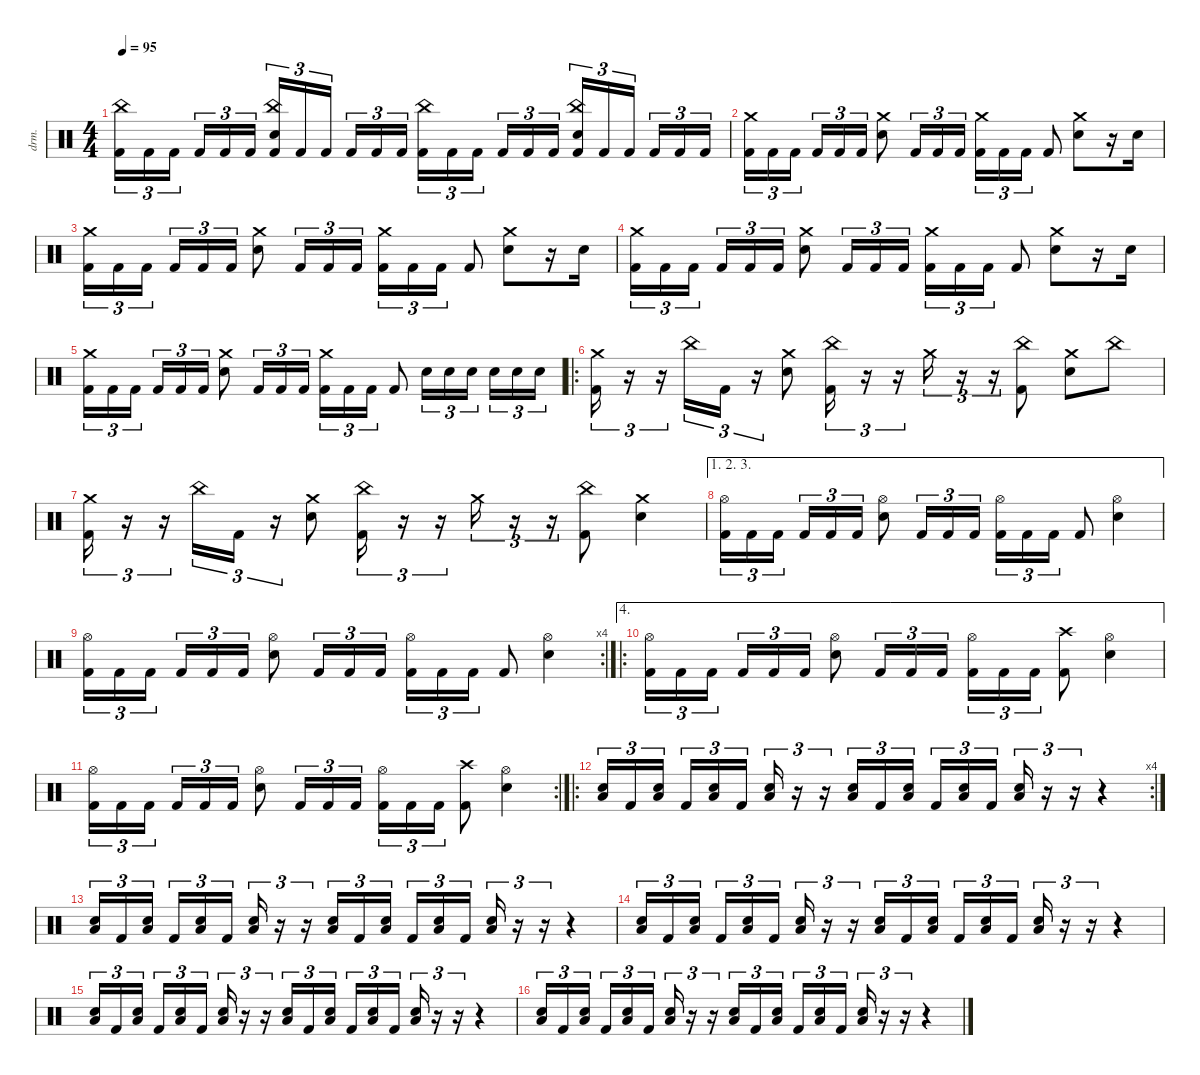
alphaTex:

\defaultSystemsLayout 4
\hideDynamics
\bracketExtendMode nobrackets
\otherSystemsTrackNameOrientation horizontal
\track ("FATTY!" "drm.") {instrument percussion}
\staff {score}
\articulation defaults
\ts (4 4)
\tempo 95
\clef neutral
\ks c
("China (hit)" "Kick (hit) 2").16{tu (3 2) dy f beam Down} "Kick (hit) 2".16{tu (3 2) beam Down} "Kick (hit) 2".16{tu (3 2) beam Down} "Kick (hit) 2".16{tu (3 2) beam Up} "Kick (hit) 2".16{tu (3 2) beam Up} "Kick (hit) 2".16{tu (3 2) beam Up} ("China (hit)" "Snare (hit) 2" "Kick (hit) 2").16{tu (3 2) beam Up} "Kick (hit) 2".16{tu (3 2) beam Up} "Kick (hit) 2".16{tu (3 2) beam Up} "Kick (hit) 2".16{tu (3 2) beam Up} "Kick (hit) 2".16{tu (3 2) beam Up} "Kick (hit) 2".16{tu (3 2) beam Up} ("China (hit)" "Kick (hit) 2").16{tu (3 2) beam Down} "Kick (hit) 2".16{tu (3 2) beam Down} "Kick (hit) 2".16{tu (3 2) beam Down} "Kick (hit) 2".16{tu (3 2) beam Up} "Kick (hit) 2".16{tu (3 2) beam Up} "Kick (hit) 2".16{tu (3 2) beam Up} ("China (hit)" "Snare (hit) 2" "Kick (hit) 2").16{tu (3 2) beam Up} "Kick (hit) 2".16{tu (3 2) beam Up} "Kick (hit) 2".16{tu (3 2) beam Up} "Kick (hit) 2".16{tu (3 2) beam Up} "Kick (hit) 2".16{tu (3 2) beam Up} "Kick (hit) 2".16{tu (3 2) beam Up} |
("Crash medium (hit)" "Kick (hit) 2").16{tu (3 2) beam Down} "Kick (hit) 2".16{tu (3 2) beam Down} "Kick (hit) 2".16{tu (3 2) beam Down} "Kick (hit) 2".16{tu (3 2) beam Up} "Kick (hit) 2".16{tu (3 2) beam Up} "Kick (hit) 2".16{tu (3 2) beam Up} ("Crash medium (hit)" "Snare (hit) 2").8{beam Down} "Kick (hit) 2".16{tu (3 2) beam Up} "Kick (hit) 2".16{tu (3 2) beam Up} "Kick (hit) 2".16{tu (3 2) beam Up} ("Crash medium (hit)" "Kick (hit) 2").16{tu (3 2) beam Down} "Kick (hit) 2".16{tu (3 2) beam Down} "Kick (hit) 2".16{tu (3 2) beam Down} "Kick (hit) 2".8{beam Up} ("Crash medium (hit)" "Snare (hit) 2").8{beam Down} r.16{beam Down} "Snare (hit) 2".16{beam Down} |
("Crash medium (hit)" "Kick (hit) 2").16{tu (3 2) beam Down} "Kick (hit) 2".16{tu (3 2) beam Down} "Kick (hit) 2".16{tu (3 2) beam Down} "Kick (hit) 2".16{tu (3 2) beam Up} "Kick (hit) 2".16{tu (3 2) beam Up} "Kick (hit) 2".16{tu (3 2) beam Up} ("Crash medium (hit)" "Snare (hit) 2").8{beam Down} "Kick (hit) 2".16{tu (3 2) beam Up} "Kick (hit) 2".16{tu (3 2) beam Up} "Kick (hit) 2".16{tu (3 2) beam Up} ("Crash medium (hit)" "Kick (hit) 2").16{tu (3 2) beam Down} "Kick (hit) 2".16{tu (3 2) beam Down} "Kick (hit) 2".16{tu (3 2) beam Down} "Kick (hit) 2".8{beam Up} ("Crash medium (hit)" "Snare (hit) 2").8{beam Down} r.16{beam Down} "Snare (hit) 2".16{beam Down} |
("Crash medium (hit)" "Kick (hit) 2").16{tu (3 2) beam Down} "Kick (hit) 2".16{tu (3 2) beam Down} "Kick (hit) 2".16{tu (3 2) beam Down} "Kick (hit) 2".16{tu (3 2) beam Up} "Kick (hit) 2".16{tu (3 2) beam Up} "Kick (hit) 2".16{tu (3 2) beam Up} ("Crash medium (hit)" "Snare (hit) 2").8{beam Down} "Kick (hit) 2".16{tu (3 2) beam Up} "Kick (hit) 2".16{tu (3 2) beam Up} "Kick (hit) 2".16{tu (3 2) beam Up} ("Crash medium (hit)" "Kick (hit) 2").16{tu (3 2) beam Down} "Kick (hit) 2".16{tu (3 2) beam Down} "Kick (hit) 2".16{tu (3 2) beam Down} "Kick (hit) 2".8{beam Up} ("Crash medium (hit)" "Snare (hit) 2").8{beam Down} r.16{beam Down} "Snare (hit) 2".16{beam Down} |
("Crash medium (hit)" "Kick (hit) 2").16{tu (3 2) beam Down} "Kick (hit) 2".16{tu (3 2) beam Down} "Kick (hit) 2".16{tu (3 2) beam Down} "Kick (hit) 2".16{tu (3 2) beam Up} "Kick (hit) 2".16{tu (3 2) beam Up} "Kick (hit) 2".16{tu (3 2) beam Up} ("Crash medium (hit)" "Snare (hit) 2").8{beam Down} "Kick (hit) 2".16{tu (3 2) beam Up} "Kick (hit) 2".16{tu (3 2) beam Up} "Kick (hit) 2".16{tu (3 2) beam Up} ("Crash medium (hit)" "Kick (hit) 2").16{tu (3 2) beam Down} "Kick (hit) 2".16{tu (3 2) beam Down} "Kick (hit) 2".16{tu (3 2) beam Down} "Kick (hit) 2".8{beam Up} "Snare (hit) 2".16{tu (3 2) beam Down} "Snare (hit) 2".16{tu (3 2) beam Down} "Snare (hit) 2".16{tu (3 2) beam Down} "Snare (hit) 2".16{tu (3 2) beam Down} "Snare (hit) 2".16{tu (3 2) beam Down} "Snare (hit) 2".16{tu (3 2) beam Down} |
\ro
("Crash medium (hit)" "Kick (hit) 2").16{tu (3 2) beam Down} r.16{tu (3 2) beam Down} r.16{tu (3 2) beam Down} "China (hit)".16{tu (3 2) beam Down} "Kick (hit) 2".16{tu (3 2) beam Down} r.16{tu (3 2) beam Down} ("Crash medium (hit)" "Snare (hit) 2").8{beam Down} ("China (hit)" "Kick (hit) 2").16{tu (3 2) beam Down} r.16{tu (3 2) beam Down} r.16{tu (3 2) beam Down} "Crash medium (hit)".16{tu (3 2) beam Down} r.16{tu (3 2) beam Down} r.16{tu (3 2) beam Down} ("China (hit)" "Kick (hit) 2").8{beam Down} ("Crash medium (hit)" "Snare (hit) 2").8{beam Down} "China (hit)".8{beam Down} |
("Crash medium (hit)" "Kick (hit) 2").16{tu (3 2) beam Down} r.16{tu (3 2) beam Down} r.16{tu (3 2) beam Down} "China (hit)".16{tu (3 2) beam Down} "Kick (hit) 2".16{tu (3 2) beam Down} r.16{tu (3 2) beam Down} ("Crash medium (hit)" "Snare (hit) 2").8{beam Down} ("China (hit)" "Kick (hit) 2").16{tu (3 2) beam Down} r.16{tu (3 2) beam Down} r.16{tu (3 2) beam Down} "Crash medium (hit)".16{tu (3 2) beam Down} r.16{tu (3 2) beam Down} r.16{tu (3 2) beam Down} ("China (hit)" "Kick (hit) 2").8{beam Down} ("Crash medium (hit)" "Snare (hit) 2").4{beam Down} |
\ae (1 2 3)
("Hi-Hat (open)" "Kick (hit) 2").16{tu (3 2) beam Down} "Kick (hit) 2".16{tu (3 2) beam Down} "Kick (hit) 2".16{tu (3 2) beam Down} "Kick (hit) 2".16{tu (3 2) beam Up} "Kick (hit) 2".16{tu (3 2) beam Up} "Kick (hit) 2".16{tu (3 2) beam Up} ("Hi-Hat (open)" "Snare (hit) 2").8{beam Down} "Kick (hit) 2".16{tu (3 2) beam Up} "Kick (hit) 2".16{tu (3 2) beam Up} "Kick (hit) 2".16{tu (3 2) beam Up} ("Hi-Hat (open)" "Kick (hit) 2").16{tu (3 2) beam Down} "Kick (hit) 2".16{tu (3 2) beam Down} "Kick (hit) 2".16{tu (3 2) beam Down} "Kick (hit) 2".8{beam Up} ("Hi-Hat (open)" "Snare (hit) 2").4{beam Down} |
\rc 4
("Hi-Hat (open)" "Kick (hit) 2").16{tu (3 2) beam Down} "Kick (hit) 2".16{tu (3 2) beam Down} "Kick (hit) 2".16{tu (3 2) beam Down} "Kick (hit) 2".16{tu (3 2) beam Up} "Kick (hit) 2".16{tu (3 2) beam Up} "Kick (hit) 2".16{tu (3 2) beam Up} ("Hi-Hat (open)" "Snare (hit) 2").8{beam Down} "Kick (hit) 2".16{tu (3 2) beam Up} "Kick (hit) 2".16{tu (3 2) beam Up} "Kick (hit) 2".16{tu (3 2) beam Up} ("Hi-Hat (open)" "Kick (hit) 2").16{tu (3 2) beam Down} "Kick (hit) 2".16{tu (3 2) beam Down} "Kick (hit) 2".16{tu (3 2) beam Down} "Kick (hit) 2".8{beam Up} ("Hi-Hat (open)" "Snare (hit) 2").4{beam Down} |
\ae 4
\ro
("Hi-Hat (open)" "Kick (hit) 2").16{tu (3 2) beam Down} "Kick (hit) 2".16{tu (3 2) beam Down} "Kick (hit) 2".16{tu (3 2) beam Down} "Kick (hit) 2".16{tu (3 2) beam Up} "Kick (hit) 2".16{tu (3 2) beam Up} "Kick (hit) 2".16{tu (3 2) beam Up} ("Hi-Hat (open)" "Snare (hit) 2").8{beam Down} "Kick (hit) 2".16{tu (3 2) beam Up} "Kick (hit) 2".16{tu (3 2) beam Up} "Kick (hit) 2".16{tu (3 2) beam Up} ("Hi-Hat (open)" "Kick (hit) 2").16{tu (3 2) beam Down} "Kick (hit) 2".16{tu (3 2) beam Down} "Kick (hit) 2".16{tu (3 2) beam Down} ("Crash high (hit)" "Kick (hit) 2").8{beam Down} ("Hi-Hat (open)" "Snare (hit) 2").4{beam Down} |
\rc 2
("Hi-Hat (open)" "Kick (hit) 2").16{tu (3 2) beam Down} "Kick (hit) 2".16{tu (3 2) beam Down} "Kick (hit) 2".16{tu (3 2) beam Down} "Kick (hit) 2".16{tu (3 2) beam Up} "Kick (hit) 2".16{tu (3 2) beam Up} "Kick (hit) 2".16{tu (3 2) beam Up} ("Hi-Hat (open)" "Snare (hit) 2").8{beam Down} "Kick (hit) 2".16{tu (3 2) beam Up} "Kick (hit) 2".16{tu (3 2) beam Up} "Kick (hit) 2".16{tu (3 2) beam Up} ("Hi-Hat (open)" "Kick (hit) 2").16{tu (3 2) beam Down} "Kick (hit) 2".16{tu (3 2) beam Down} "Kick (hit) 2".16{tu (3 2) beam Down} ("Crash high (hit)" "Kick (hit) 2").8{beam Down} ("Hi-Hat (open)" "Snare (hit) 2").4{beam Down} |
\ro
\rc 4
("Snare (hit) 2" "Low Tom (hit)").16{tu (3 2) beam Up} "Kick (hit) 2".16{tu (3 2) beam Up} ("Snare (hit) 2" "Low Tom (hit)").16{tu (3 2) beam Up} "Kick (hit) 2".16{tu (3 2) beam Up} ("Snare (hit) 2" "Low Tom (hit)").16{tu (3 2) beam Up} "Kick (hit) 2".16{tu (3 2) beam Up} ("Snare (hit) 2" "Low Tom (hit)").16{tu (3 2) beam Up} r.16{tu (3 2) beam Up} r.16{tu (3 2) beam Up} ("Low Tom (hit)" "Snare (hit) 2").16{tu (3 2) beam Up} "Kick (hit) 2".16{tu (3 2) beam Up} ("Low Tom (hit)" "Snare (hit) 2").16{tu (3 2) beam Up} "Kick (hit) 2".16{tu (3 2) beam Up} ("Low Tom (hit)" "Snare (hit) 2").16{tu (3 2) beam Up} "Kick (hit) 2".16{tu (3 2) beam Up} ("Low Tom (hit)" "Snare (hit) 2").16{tu (3 2) beam Up} r.16{tu (3 2) beam Up} r.16{tu (3 2) beam Up} r.4{beam Up} |
("Snare (hit) 2" "Low Tom (hit)").16{tu (3 2) beam Up} "Kick (hit) 2".16{tu (3 2) beam Up} ("Snare (hit) 2" "Low Tom (hit)").16{tu (3 2) beam Up} "Kick (hit) 2".16{tu (3 2) beam Up} ("Snare (hit) 2" "Low Tom (hit)").16{tu (3 2) beam Up} "Kick (hit) 2".16{tu (3 2) beam Up} ("Snare (hit) 2" "Low Tom (hit)").16{tu (3 2) beam Up} r.16{tu (3 2) beam Up} r.16{tu (3 2) beam Up} ("Low Tom (hit)" "Snare (hit) 2").16{tu (3 2) beam Up} "Kick (hit) 2".16{tu (3 2) beam Up} ("Low Tom (hit)" "Snare (hit) 2").16{tu (3 2) beam Up} "Kick (hit) 2".16{tu (3 2) beam Up} ("Low Tom (hit)" "Snare (hit) 2").16{tu (3 2) beam Up} "Kick (hit) 2".16{tu (3 2) beam Up} ("Low Tom (hit)" "Snare (hit) 2").16{tu (3 2) beam Up} r.16{tu (3 2) beam Up} r.16{tu (3 2) beam Up} r.4{beam Up} |
("Snare (hit) 2" "Low Tom (hit)").16{tu (3 2) beam Up} "Kick (hit) 2".16{tu (3 2) beam Up} ("Snare (hit) 2" "Low Tom (hit)").16{tu (3 2) beam Up} "Kick (hit) 2".16{tu (3 2) beam Up} ("Snare (hit) 2" "Low Tom (hit)").16{tu (3 2) beam Up} "Kick (hit) 2".16{tu (3 2) beam Up} ("Snare (hit) 2" "Low Tom (hit)").16{tu (3 2) beam Up} r.16{tu (3 2) beam Up} r.16{tu (3 2) beam Up} ("Low Tom (hit)" "Snare (hit) 2").16{tu (3 2) beam Up} "Kick (hit) 2".16{tu (3 2) beam Up} ("Low Tom (hit)" "Snare (hit) 2").16{tu (3 2) beam Up} "Kick (hit) 2".16{tu (3 2) beam Up} ("Low Tom (hit)" "Snare (hit) 2").16{tu (3 2) beam Up} "Kick (hit) 2".16{tu (3 2) beam Up} ("Low Tom (hit)" "Snare (hit) 2").16{tu (3 2) beam Up} r.16{tu (3 2) beam Up} r.16{tu (3 2) beam Up} r.4{beam Up} |
("Snare (hit) 2" "Low Tom (hit)").16{tu (3 2) beam Up} "Kick (hit) 2".16{tu (3 2) beam Up} ("Snare (hit) 2" "Low Tom (hit)").16{tu (3 2) beam Up} "Kick (hit) 2".16{tu (3 2) beam Up} ("Snare (hit) 2" "Low Tom (hit)").16{tu (3 2) beam Up} "Kick (hit) 2".16{tu (3 2) beam Up} ("Snare (hit) 2" "Low Tom (hit)").16{tu (3 2) beam Up} r.16{tu (3 2) beam Up} r.16{tu (3 2) beam Up} ("Low Tom (hit)" "Snare (hit) 2").16{tu (3 2) beam Up} "Kick (hit) 2".16{tu (3 2) beam Up} ("Low Tom (hit)" "Snare (hit) 2").16{tu (3 2) beam Up} "Kick (hit) 2".16{tu (3 2) beam Up} ("Low Tom (hit)" "Snare (hit) 2").16{tu (3 2) beam Up} "Kick (hit) 2".16{tu (3 2) beam Up} ("Low Tom (hit)" "Snare (hit) 2").16{tu (3 2) beam Up} r.16{tu (3 2) beam Up} r.16{tu (3 2) beam Up} r.4{beam Up} |
("Snare (hit) 2" "Low Tom (hit)").16{tu (3 2) beam Up} "Kick (hit) 2".16{tu (3 2) beam Up} ("Snare (hit) 2" "Low Tom (hit)").16{tu (3 2) beam Up} "Kick (hit) 2".16{tu (3 2) beam Up} ("Snare (hit) 2" "Low Tom (hit)").16{tu (3 2) beam Up} "Kick (hit) 2".16{tu (3 2) beam Up} ("Snare (hit) 2" "Low Tom (hit)").16{tu (3 2) beam Up} r.16{tu (3 2) beam Up} r.16{tu (3 2) beam Up} ("Low Tom (hit)" "Snare (hit) 2").16{tu (3 2) beam Up} "Kick (hit) 2".16{tu (3 2) beam Up} ("Low Tom (hit)" "Snare (hit) 2").16{tu (3 2) beam Up} "Kick (hit) 2".16{tu (3 2) beam Up} ("Low Tom (hit)" "Snare (hit) 2").16{tu (3 2) beam Up} "Kick (hit) 2".16{tu (3 2) beam Up} ("Low Tom (hit)" "Snare (hit) 2").16{tu (3 2) beam Up} r.16{tu (3 2) beam Up} r.16{tu (3 2) beam Up} r.4{beam Up}
